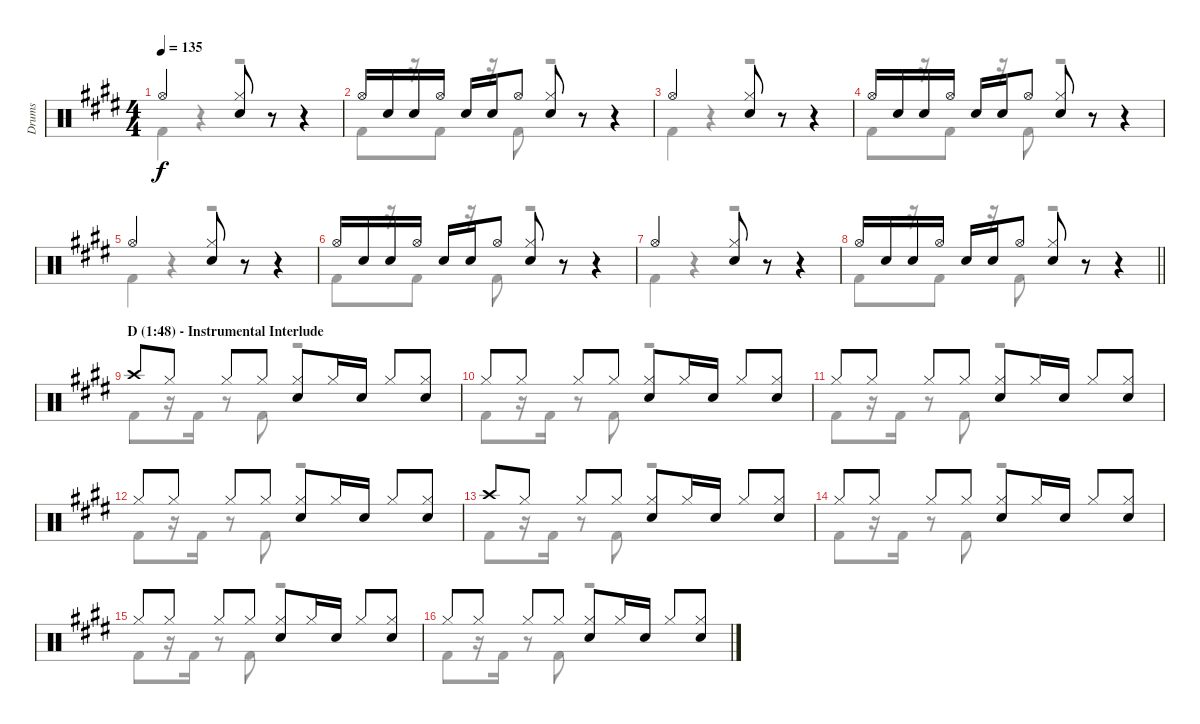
\track ("Drums" "Drums") {instrument percussion}
\staff {score}
\articulation defaults
\voice
\ts (4 4)
\tempo 135
\clef neutral
\ks c#minor "Hi-Hat (open)".2{dy f}
("Hi-Hat (closed)" "Snare (hit) 2").8 r.8 r.4 |
"Hi-Hat (open)".16 "Snare (hit) 2".16 "Snare (hit) 2".16 "Hi-Hat (open)".16 "Snare (hit) 2".16 "Snare (hit) 2".16 "Hi-Hat (open)".8 ("Hi-Hat (closed)" "Snare (hit) 2").8 r.8 r.4 |
"Hi-Hat (open)".2 ("Hi-Hat (closed)" "Snare (hit) 2").8 r.8 r.4 |
"Hi-Hat (open)".16 "Snare (hit) 2".16 "Snare (hit) 2".16 "Hi-Hat (open)".16 "Snare (hit) 2".16 "Snare (hit) 2".16 "Hi-Hat (open)".8 ("Hi-Hat (closed)" "Snare (hit) 2").8 r.8 r.4 |
"Hi-Hat (open)".2 ("Hi-Hat (closed)" "Snare (hit) 2").8 r.8 r.4 |
"Hi-Hat (open)".16 "Snare (hit) 2".16 "Snare (hit) 2".16 "Hi-Hat (open)".16 "Snare (hit) 2".16 "Snare (hit) 2".16 "Hi-Hat (open)".8 ("Hi-Hat (closed)" "Snare (hit) 2").8 r.8 r.4 |
"Hi-Hat (open)".2 ("Hi-Hat (closed)" "Snare (hit) 2").8 r.8 r.4 |
\barLineRight lightlight "Hi-Hat (open)".16 "Snare (hit) 2".16 "Snare (hit) 2".16 "Hi-Hat (open)".16 "Snare (hit) 2".16 "Snare (hit) 2".16 "Hi-Hat (open)".8
("Hi-Hat (closed)" "Snare (hit) 2").8 r.8 r.4 |
\section ("" "D (1:48) - Instrumental Interlude")
"Crash high (hit)".8 "Hi-Hat (closed)".8 "Hi-Hat (closed)".8 "Hi-Hat (closed)".8 ("Hi-Hat (closed)" "Snare (hit) 2").8 "Hi-Hat (closed)".16 "Snare (hit) 2".16 "Hi-Hat (closed)".8 ("Hi-Hat (closed)" "Snare (hit) 2").8 |
"Hi-Hat (closed)".8 "Hi-Hat (closed)".8 "Hi-Hat (closed)".8 "Hi-Hat (closed)".8 ("Hi-Hat (closed)" "Snare (hit) 2").8 "Hi-Hat (closed)".16 "Snare (hit) 2".16 "Hi-Hat (closed)".8 ("Hi-Hat (closed)" "Snare (hit) 2").8 |
"Hi-Hat (closed)".8 "Hi-Hat (closed)".8 "Hi-Hat (closed)".8 "Hi-Hat (closed)".8 ("Hi-Hat (closed)" "Snare (hit) 2").8 "Hi-Hat (closed)".16 "Snare (hit) 2".16 "Hi-Hat (closed)".8 ("Hi-Hat (closed)" "Snare (hit) 2").8 |
"Hi-Hat (closed)".8 "Hi-Hat (closed)".8 "Hi-Hat (closed)".8 "Hi-Hat (closed)".8 ("Hi-Hat (closed)" "Snare (hit) 2").8 "Hi-Hat (closed)".16 "Snare (hit) 2".16 "Hi-Hat (closed)".8 ("Hi-Hat (closed)" "Snare (hit) 2").8 |
"Crash high (hit)".8 "Hi-Hat (closed)".8 "Hi-Hat (closed)".8 "Hi-Hat (closed)".8 ("Hi-Hat (closed)" "Snare (hit) 2").8 "Hi-Hat (closed)".16 "Snare (hit) 2".16 "Hi-Hat (closed)".8 ("Hi-Hat (closed)" "Snare (hit) 2").8 |
"Hi-Hat (closed)".8 "Hi-Hat (closed)".8 "Hi-Hat (closed)".8 "Hi-Hat (closed)".8 ("Hi-Hat (closed)" "Snare (hit) 2").8 "Hi-Hat (closed)".16 "Snare (hit) 2".16 "Hi-Hat (closed)".8 ("Hi-Hat (closed)" "Snare (hit) 2").8 |
"Hi-Hat (closed)".8 "Hi-Hat (closed)".8 "Hi-Hat (closed)".8 "Hi-Hat (closed)".8 ("Hi-Hat (closed)" "Snare (hit) 2").8 "Hi-Hat (closed)".16 "Snare (hit) 2".16 "Hi-Hat (closed)".8 ("Hi-Hat (closed)" "Snare (hit) 2").8 |
"Hi-Hat (closed)".8 "Hi-Hat (closed)".8 "Hi-Hat (closed)".8 "Hi-Hat (closed)".8 ("Hi-Hat (closed)" "Snare (hit) 2").8 "Hi-Hat (closed)".16 "Snare (hit) 2".16 "Hi-Hat (closed)".8 ("Hi-Hat (closed)" "Snare (hit) 2").8
\voice
\clef neutral
\ottava regular
\simile none
\ks c#minor "Kick (hit) 2".4{dy f}
r.4 r.2 |
"Kick (hit) 2".8 r.16 "Kick (hit) 2".8 r.16 "Kick (hit) 2".8 r.2 |
"Kick (hit) 2".4 r.4 r.2 |
"Kick (hit) 2".8 r.16 "Kick (hit) 2".8 r.16 "Kick (hit) 2".8 r.2 |
"Kick (hit) 2".4 r.4 r.2 |
"Kick (hit) 2".8 r.16 "Kick (hit) 2".8 r.16 "Kick (hit) 2".8 r.2 |
"Kick (hit) 2".4 r.4 r.2 |
\barLineRight lightlight "Kick (hit) 2".8
r.16 "Kick (hit) 2".8 r.16 "Kick (hit) 2".8 r.2 |
"Kick (hit) 2".8 r.16 "Kick (hit) 2".16 r.8 "Kick (hit) 2".8 r.2 |
"Kick (hit) 2".8 r.16 "Kick (hit) 2".16 r.8 "Kick (hit) 2".8 r.2 |
"Kick (hit) 2".8 r.16 "Kick (hit) 2".16 r.8 "Kick (hit) 2".8 r.2 |
"Kick (hit) 2".8 r.16 "Kick (hit) 2".16 r.8 "Kick (hit) 2".8 r.2 |
"Kick (hit) 2".8 r.16 "Kick (hit) 2".16 r.8 "Kick (hit) 2".8 r.2 |
"Kick (hit) 2".8 r.16 "Kick (hit) 2".16 r.8 "Kick (hit) 2".8 r.2 |
"Kick (hit) 2".8 r.16 "Kick (hit) 2".16 r.8 "Kick (hit) 2".8 r.2 |
"Kick (hit) 2".8 r.16 "Kick (hit) 2".16 r.8 "Kick (hit) 2".8 r.2
